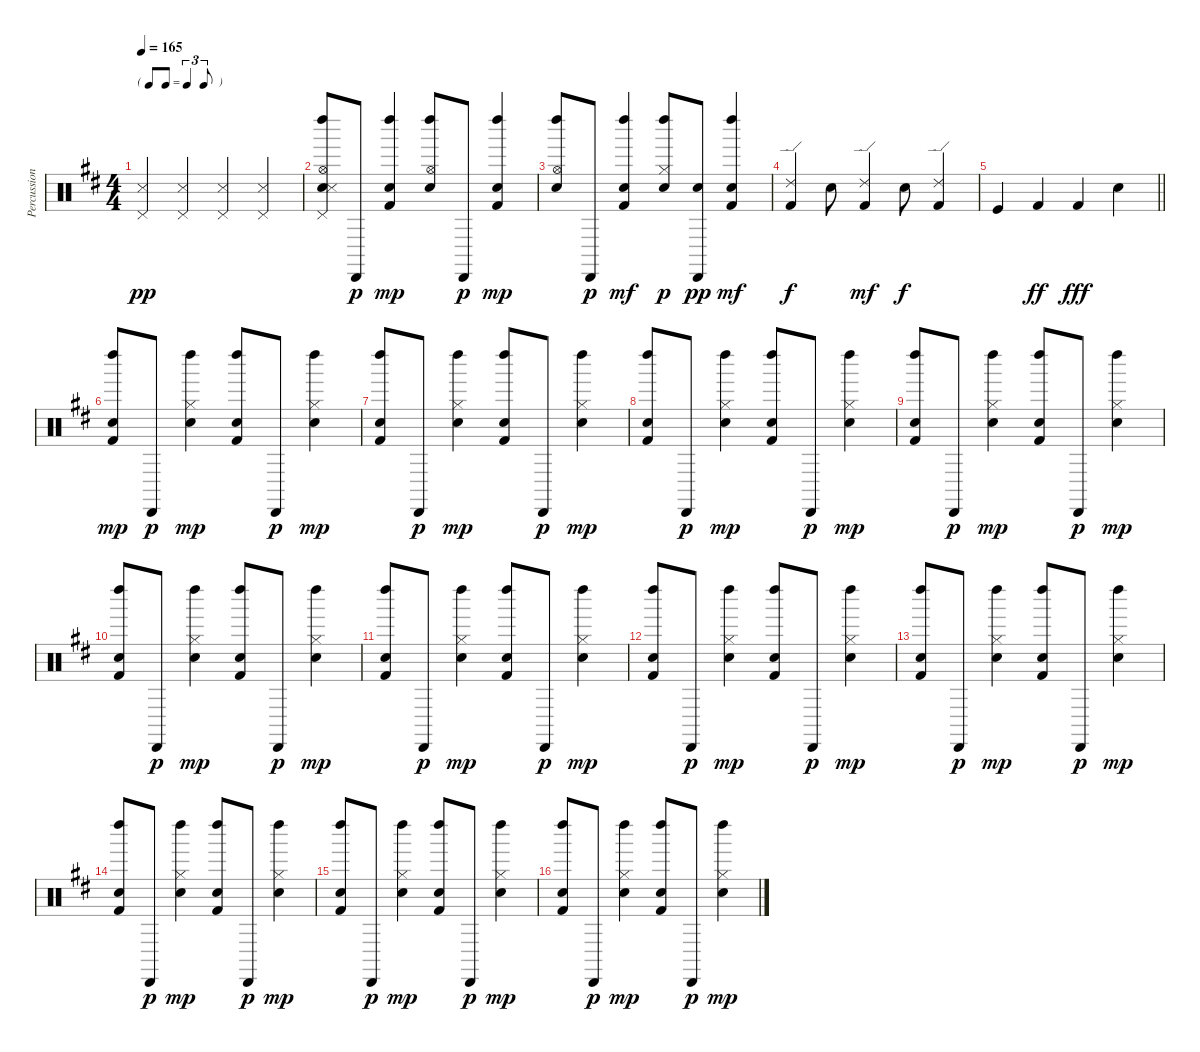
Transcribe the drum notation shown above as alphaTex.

\track ("Percussion" "Percussion") {instrument percussion}
\staff {score}
\articulation defaults
\ts (4 4)
\tf triplet8th
\tempo 165
\clef neutral
\ks d
("Pedal Hi-Hat (hit)" "Snare (side stick) 3").4{dy pp} ("Pedal Hi-Hat (hit)" "Snare (side stick) 3").4 ("Pedal Hi-Hat (hit)" "Snare (side stick) 3").4 ("Pedal Hi-Hat (hit)" "Snare (side stick) 3").4 |
("Snare (hit) 2" "Hi-Hat (open)" "Left Maraca (hit)" "Pedal Hi-Hat (hit)" "Snare (side stick) 3").8 "Cabasa (hit)".8{dy p} ("Snare (hit) 2" "Kick (hit) 2" "Left Maraca (hit)").4{dy mp} ("Snare (hit) 2" "Left Maraca (hit)" "Hi-Hat (open)").8 "Cabasa (hit)".8{dy p} ("Kick (hit) 2" "Snare (hit) 2" "Left Maraca (hit)").4{dy mp} |
("Snare (hit) 2" "Left Maraca (hit)" "Hi-Hat (open)").8 "Cabasa (hit)".8{dy p} ("Snare (hit) 2" "Left Maraca (hit)" "Kick (hit) 2").4{dy mf} ("Hi-Hat (closed)" "Snare (hit) 2" "Left Maraca (hit)").8{dy p} ("Snare (hit) 2" "Cabasa (hit)").8{dy pp} ("Snare (hit) 2" "Left Maraca (hit)" "Kick (hit) 2").4{dy mf} |
("Kick (hit) 2" "Ride (edge) 2").4{dy f} "Snare (hit) 2".8 ("Ride (edge) 2" "Kick (hit) 2").4{dy mf} "Snare (hit) 2".8{dy f} ("Kick (hit) 2" "Ride (edge) 2").4 |
\barLineRight lightlight "Kick (hit)".4 "Kick (hit) 2".4{dy ff} "Kick (hit) 2".4{dy fff} "Snare (hit) 2".4
|
("Left Maraca (hit)" "Snare (hit) 2" "Kick (hit) 2").8{dy mp} "Cabasa (hit)".8{dy p} ("Left Maraca (hit)" "Hi-Hat (closed)" "Snare (hit) 2").4{dy mp} ("Left Maraca (hit)" "Snare (hit) 2" "Kick (hit) 2").8 "Cabasa (hit)".8{dy p} ("Left Maraca (hit)" "Hi-Hat (closed)" "Snare (hit) 2").4{dy mp} |
("Left Maraca (hit)" "Snare (hit) 2" "Kick (hit) 2").8 "Cabasa (hit)".8{dy p} ("Left Maraca (hit)" "Hi-Hat (closed)" "Snare (hit) 2").4{dy mp} ("Left Maraca (hit)" "Snare (hit) 2" "Kick (hit) 2").8 "Cabasa (hit)".8{dy p} ("Left Maraca (hit)" "Hi-Hat (closed)" "Snare (hit) 2").4{dy mp} |
("Left Maraca (hit)" "Snare (hit) 2" "Kick (hit) 2").8 "Cabasa (hit)".8{dy p} ("Left Maraca (hit)" "Hi-Hat (closed)" "Snare (hit) 2").4{dy mp} ("Left Maraca (hit)" "Snare (hit) 2" "Kick (hit) 2").8 "Cabasa (hit)".8{dy p} ("Left Maraca (hit)" "Hi-Hat (closed)" "Snare (hit) 2").4{dy mp} |
("Left Maraca (hit)" "Snare (hit) 2" "Kick (hit) 2").8 "Cabasa (hit)".8{dy p} ("Left Maraca (hit)" "Hi-Hat (closed)" "Snare (hit) 2").4{dy mp} ("Left Maraca (hit)" "Snare (hit) 2" "Kick (hit) 2").8 "Cabasa (hit)".8{dy p} ("Left Maraca (hit)" "Hi-Hat (closed)" "Snare (hit) 2").4{dy mp} |
("Left Maraca (hit)" "Snare (hit) 2" "Kick (hit) 2").8 "Cabasa (hit)".8{dy p} ("Left Maraca (hit)" "Hi-Hat (closed)" "Snare (hit) 2").4{dy mp} ("Left Maraca (hit)" "Snare (hit) 2" "Kick (hit) 2").8 "Cabasa (hit)".8{dy p} ("Left Maraca (hit)" "Hi-Hat (closed)" "Snare (hit) 2").4{dy mp} |
("Left Maraca (hit)" "Snare (hit) 2" "Kick (hit) 2").8 "Cabasa (hit)".8{dy p} ("Left Maraca (hit)" "Hi-Hat (closed)" "Snare (hit) 2").4{dy mp} ("Left Maraca (hit)" "Snare (hit) 2" "Kick (hit) 2").8 "Cabasa (hit)".8{dy p} ("Left Maraca (hit)" "Hi-Hat (closed)" "Snare (hit) 2").4{dy mp} |
("Left Maraca (hit)" "Snare (hit) 2" "Kick (hit) 2").8 "Cabasa (hit)".8{dy p} ("Left Maraca (hit)" "Hi-Hat (closed)" "Snare (hit) 2").4{dy mp} ("Left Maraca (hit)" "Snare (hit) 2" "Kick (hit) 2").8 "Cabasa (hit)".8{dy p} ("Left Maraca (hit)" "Hi-Hat (closed)" "Snare (hit) 2").4{dy mp} |
("Left Maraca (hit)" "Snare (hit) 2" "Kick (hit) 2").8 "Cabasa (hit)".8{dy p} ("Left Maraca (hit)" "Hi-Hat (closed)" "Snare (hit) 2").4{dy mp} ("Left Maraca (hit)" "Snare (hit) 2" "Kick (hit) 2").8 "Cabasa (hit)".8{dy p} ("Left Maraca (hit)" "Hi-Hat (closed)" "Snare (hit) 2").4{dy mp} |
("Left Maraca (hit)" "Snare (hit) 2" "Kick (hit) 2").8 "Cabasa (hit)".8{dy p} ("Left Maraca (hit)" "Hi-Hat (closed)" "Snare (hit) 2").4{dy mp} ("Left Maraca (hit)" "Snare (hit) 2" "Kick (hit) 2").8 "Cabasa (hit)".8{dy p} ("Left Maraca (hit)" "Hi-Hat (closed)" "Snare (hit) 2").4{dy mp} |
("Left Maraca (hit)" "Snare (hit) 2" "Kick (hit) 2").8 "Cabasa (hit)".8{dy p} ("Left Maraca (hit)" "Hi-Hat (closed)" "Snare (hit) 2").4{dy mp} ("Left Maraca (hit)" "Snare (hit) 2" "Kick (hit) 2").8 "Cabasa (hit)".8{dy p} ("Left Maraca (hit)" "Hi-Hat (closed)" "Snare (hit) 2").4{dy mp} |
("Left Maraca (hit)" "Snare (hit) 2" "Kick (hit) 2").8 "Cabasa (hit)".8{dy p} ("Left Maraca (hit)" "Hi-Hat (closed)" "Snare (hit) 2").4{dy mp} ("Left Maraca (hit)" "Snare (hit) 2" "Kick (hit) 2").8 "Cabasa (hit)".8{dy p} ("Left Maraca (hit)" "Hi-Hat (closed)" "Snare (hit) 2").4{dy mp}
